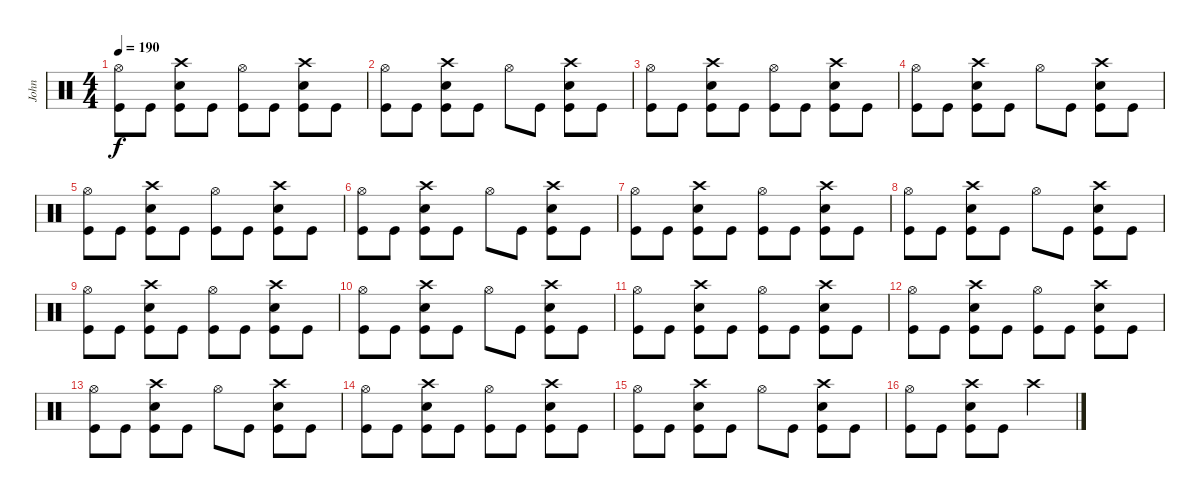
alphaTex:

\track ("John" "John") {instrument percussion}
\staff {score}
\articulation defaults
\ts (4 4)
\tempo 190
\clef neutral
\ks c
("Kick (hit)" "Hi-Hat (open)").8{dy f} "Kick (hit)".8 ("Kick (hit)" "Snare (hit) 2" "Crash high (hit)").8 "Kick (hit)".8 ("Kick (hit)" "Hi-Hat (open)").8 "Kick (hit)".8 ("Kick (hit)" "Snare (hit) 2" "Crash high (hit)").8 "Kick (hit)".8 |
("Kick (hit)" "Hi-Hat (open)").8 "Kick (hit)".8 ("Kick (hit)" "Snare (hit) 2" "Crash high (hit)").8 "Kick (hit)".8 "Hi-Hat (open)".8 "Kick (hit)".8 ("Kick (hit)" "Snare (hit) 2" "Crash high (hit)").8 "Kick (hit)".8 |
("Kick (hit)" "Hi-Hat (open)").8 "Kick (hit)".8 ("Kick (hit)" "Snare (hit) 2" "Crash high (hit)").8 "Kick (hit)".8 ("Kick (hit)" "Hi-Hat (open)").8 "Kick (hit)".8 ("Kick (hit)" "Snare (hit) 2" "Crash high (hit)").8 "Kick (hit)".8 |
("Kick (hit)" "Hi-Hat (open)").8 "Kick (hit)".8 ("Kick (hit)" "Snare (hit) 2" "Crash high (hit)").8 "Kick (hit)".8 "Hi-Hat (open)".8 "Kick (hit)".8 ("Kick (hit)" "Snare (hit) 2" "Crash high (hit)").8 "Kick (hit)".8 |
("Kick (hit)" "Hi-Hat (open)").8 "Kick (hit)".8 ("Kick (hit)" "Snare (hit) 2" "Crash high (hit)").8 "Kick (hit)".8 ("Kick (hit)" "Hi-Hat (open)").8 "Kick (hit)".8 ("Kick (hit)" "Snare (hit) 2" "Crash high (hit)").8 "Kick (hit)".8 |
("Kick (hit)" "Hi-Hat (open)").8 "Kick (hit)".8 ("Kick (hit)" "Snare (hit) 2" "Crash high (hit)").8 "Kick (hit)".8 "Hi-Hat (open)".8 "Kick (hit)".8 ("Kick (hit)" "Snare (hit) 2" "Crash high (hit)").8 "Kick (hit)".8 |
("Kick (hit)" "Hi-Hat (open)").8 "Kick (hit)".8 ("Kick (hit)" "Snare (hit) 2" "Crash high (hit)").8 "Kick (hit)".8 ("Kick (hit)" "Hi-Hat (open)").8 "Kick (hit)".8 ("Kick (hit)" "Snare (hit) 2" "Crash high (hit)").8 "Kick (hit)".8 |
("Kick (hit)" "Hi-Hat (open)").8 "Kick (hit)".8 ("Kick (hit)" "Snare (hit) 2" "Crash high (hit)").8 "Kick (hit)".8 "Hi-Hat (open)".8 "Kick (hit)".8 ("Kick (hit)" "Snare (hit) 2" "Crash high (hit)").8 "Kick (hit)".8 |
("Kick (hit)" "Hi-Hat (open)").8 "Kick (hit)".8 ("Kick (hit)" "Snare (hit) 2" "Crash high (hit)").8 "Kick (hit)".8 ("Kick (hit)" "Hi-Hat (open)").8 "Kick (hit)".8 ("Kick (hit)" "Snare (hit) 2" "Crash high (hit)").8 "Kick (hit)".8 |
("Kick (hit)" "Hi-Hat (open)").8 "Kick (hit)".8 ("Kick (hit)" "Snare (hit) 2" "Crash high (hit)").8 "Kick (hit)".8 "Hi-Hat (open)".8 "Kick (hit)".8 ("Kick (hit)" "Snare (hit) 2" "Crash high (hit)").8 "Kick (hit)".8 |
("Kick (hit)" "Hi-Hat (open)").8 "Kick (hit)".8 ("Kick (hit)" "Snare (hit) 2" "Crash high (hit)").8 "Kick (hit)".8 ("Kick (hit)" "Hi-Hat (open)").8 "Kick (hit)".8 ("Kick (hit)" "Snare (hit) 2" "Crash high (hit)").8 "Kick (hit)".8 |
("Kick (hit)" "Hi-Hat (open)").8 "Kick (hit)".8 ("Kick (hit)" "Snare (hit) 2" "Crash high (hit)").8 "Kick (hit)".8 ("Kick (hit)" "Hi-Hat (open)").8 "Kick (hit)".8 ("Kick (hit)" "Snare (hit) 2" "Crash high (hit)").8 "Kick (hit)".8 |
("Kick (hit)" "Hi-Hat (open)").8 "Kick (hit)".8 ("Kick (hit)" "Snare (hit) 2" "Crash high (hit)").8 "Kick (hit)".8 "Hi-Hat (open)".8 "Kick (hit)".8 ("Kick (hit)" "Snare (hit) 2" "Crash high (hit)").8 "Kick (hit)".8 |
("Kick (hit)" "Hi-Hat (open)").8 "Kick (hit)".8 ("Kick (hit)" "Snare (hit) 2" "Crash high (hit)").8 "Kick (hit)".8 ("Kick (hit)" "Hi-Hat (open)").8 "Kick (hit)".8 ("Kick (hit)" "Snare (hit) 2" "Crash high (hit)").8 "Kick (hit)".8 |
("Kick (hit)" "Hi-Hat (open)").8 "Kick (hit)".8 ("Kick (hit)" "Snare (hit) 2" "Crash high (hit)").8 "Kick (hit)".8 "Hi-Hat (open)".8 "Kick (hit)".8 ("Kick (hit)" "Snare (hit) 2" "Crash high (hit)").8 "Kick (hit)".8 |
("Kick (hit)" "Hi-Hat (open)").8 "Kick (hit)".8 ("Kick (hit)" "Snare (hit) 2" "Crash high (hit)").8 "Kick (hit)".8 "Crash high (hit)".2
